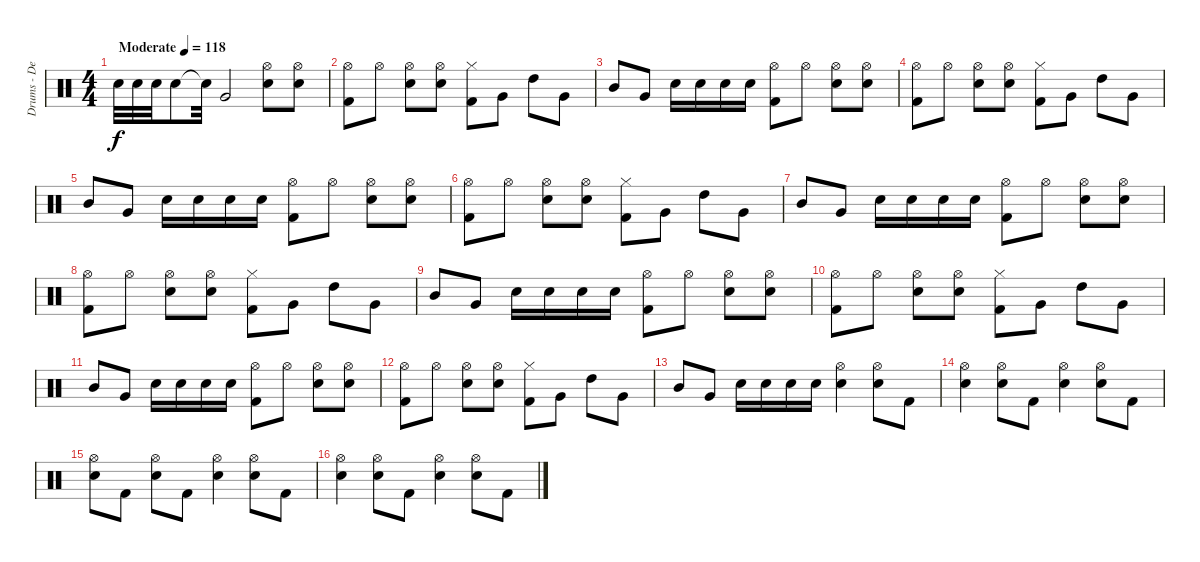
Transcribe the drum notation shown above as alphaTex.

\track ("Drums - Densmore" "Drums - De") {instrument percussion}
\staff {score}
\articulation defaults
\ts (4 4)
\tempo (118 "Moderate")
\clef neutral
\ks c "Electric Snare (hit)".32{dy f} "Electric Snare (hit)".32 "Electric Snare (hit)".32 "Electric Snare (hit)".8 "Snare (hit)"{t}.32 "Very Low Tom (hit)".2
("Hi-Hat (open)" "Electric Snare (hit)").8 ("Hi-Hat (open)" "Electric Snare (hit)").8 |
("Hi-Hat (open)" "Kick (hit) 2").8 "Hi-Hat (open)".8 ("Hi-Hat (open)" "Electric Snare (hit)").8 ("Hi-Hat (open)" "Electric Snare (hit)").8 ("Hi-Hat (closed)" "Kick (hit) 2").8 "Very Low Tom (hit)".8 "High Tom (hit)".8 "Very Low Tom (hit)".8 |
"Mid Tom (hit)".8 "Very Low Tom (hit)".8 "Electric Snare (hit)".16 "Electric Snare (hit)".16 "Electric Snare (hit)".16 "Electric Snare (hit)".16 ("Hi-Hat (open)" "Kick (hit) 2").8 "Hi-Hat (open)".8 ("Hi-Hat (open)" "Electric Snare (hit)").8 ("Hi-Hat (open)" "Electric Snare (hit)").8 |
("Hi-Hat (open)" "Kick (hit) 2").8 "Hi-Hat (open)".8 ("Hi-Hat (open)" "Electric Snare (hit)").8 ("Hi-Hat (open)" "Electric Snare (hit)").8 ("Hi-Hat (closed)" "Kick (hit) 2").8 "Very Low Tom (hit)".8 "High Tom (hit)".8 "Very Low Tom (hit)".8 |
"Mid Tom (hit)".8 "Very Low Tom (hit)".8 "Electric Snare (hit)".16 "Electric Snare (hit)".16 "Electric Snare (hit)".16 "Electric Snare (hit)".16 ("Hi-Hat (open)" "Kick (hit) 2").8 "Hi-Hat (open)".8 ("Hi-Hat (open)" "Electric Snare (hit)").8 ("Hi-Hat (open)" "Electric Snare (hit)").8 |
("Hi-Hat (open)" "Kick (hit) 2").8 "Hi-Hat (open)".8 ("Hi-Hat (open)" "Electric Snare (hit)").8 ("Hi-Hat (open)" "Electric Snare (hit)").8 ("Hi-Hat (closed)" "Kick (hit) 2").8 "Very Low Tom (hit)".8 "High Tom (hit)".8 "Very Low Tom (hit)".8 |
"Mid Tom (hit)".8 "Very Low Tom (hit)".8 "Electric Snare (hit)".16 "Electric Snare (hit)".16 "Electric Snare (hit)".16 "Electric Snare (hit)".16 ("Hi-Hat (open)" "Kick (hit) 2").8 "Hi-Hat (open)".8 ("Hi-Hat (open)" "Electric Snare (hit)").8 ("Hi-Hat (open)" "Electric Snare (hit)").8 |
("Hi-Hat (open)" "Kick (hit) 2").8 "Hi-Hat (open)".8 ("Hi-Hat (open)" "Electric Snare (hit)").8 ("Hi-Hat (open)" "Electric Snare (hit)").8 ("Hi-Hat (closed)" "Kick (hit) 2").8 "Very Low Tom (hit)".8 "High Tom (hit)".8 "Very Low Tom (hit)".8 |
"Mid Tom (hit)".8 "Very Low Tom (hit)".8 "Electric Snare (hit)".16 "Electric Snare (hit)".16 "Electric Snare (hit)".16 "Electric Snare (hit)".16 ("Hi-Hat (open)" "Kick (hit) 2").8 "Hi-Hat (open)".8 ("Hi-Hat (open)" "Electric Snare (hit)").8 ("Hi-Hat (open)" "Electric Snare (hit)").8 |
("Hi-Hat (open)" "Kick (hit) 2").8 "Hi-Hat (open)".8 ("Hi-Hat (open)" "Electric Snare (hit)").8 ("Hi-Hat (open)" "Electric Snare (hit)").8 ("Hi-Hat (closed)" "Kick (hit) 2").8 "Very Low Tom (hit)".8 "High Tom (hit)".8 "Very Low Tom (hit)".8 |
"Mid Tom (hit)".8 "Very Low Tom (hit)".8 "Electric Snare (hit)".16 "Electric Snare (hit)".16 "Electric Snare (hit)".16 "Electric Snare (hit)".16 ("Hi-Hat (open)" "Kick (hit) 2").8 "Hi-Hat (open)".8 ("Hi-Hat (open)" "Electric Snare (hit)").8 ("Hi-Hat (open)" "Electric Snare (hit)").8 |
("Hi-Hat (open)" "Kick (hit) 2").8 "Hi-Hat (open)".8 ("Hi-Hat (open)" "Electric Snare (hit)").8 ("Hi-Hat (open)" "Electric Snare (hit)").8 ("Hi-Hat (closed)" "Kick (hit) 2").8 "Very Low Tom (hit)".8 "High Tom (hit)".8 "Very Low Tom (hit)".8 |
"Mid Tom (hit)".8 "Very Low Tom (hit)".8 "Electric Snare (hit)".16 "Electric Snare (hit)".16 "Electric Snare (hit)".16 "Electric Snare (hit)".16 ("Hi-Hat (open)" "Electric Snare (hit)").4 ("Hi-Hat (open)" "Electric Snare (hit)").8 "Kick (hit) 2".8 |
("Hi-Hat (open)" "Electric Snare (hit)").4 ("Hi-Hat (open)" "Electric Snare (hit)").8 "Kick (hit) 2".8 ("Hi-Hat (open)" "Electric Snare (hit)").4 ("Hi-Hat (open)" "Electric Snare (hit)").8 "Kick (hit) 2".8 |
("Hi-Hat (open)" "Electric Snare (hit)").8 "Kick (hit) 2".8 ("Hi-Hat (open)" "Electric Snare (hit)").8 "Kick (hit) 2".8 ("Hi-Hat (open)" "Electric Snare (hit)").4 ("Hi-Hat (open)" "Electric Snare (hit)").8 "Kick (hit) 2".8 |
("Hi-Hat (open)" "Electric Snare (hit)").4 ("Hi-Hat (open)" "Electric Snare (hit)").8 "Kick (hit) 2".8 ("Hi-Hat (open)" "Electric Snare (hit)").4 ("Hi-Hat (open)" "Electric Snare (hit)").8 "Kick (hit) 2".8
